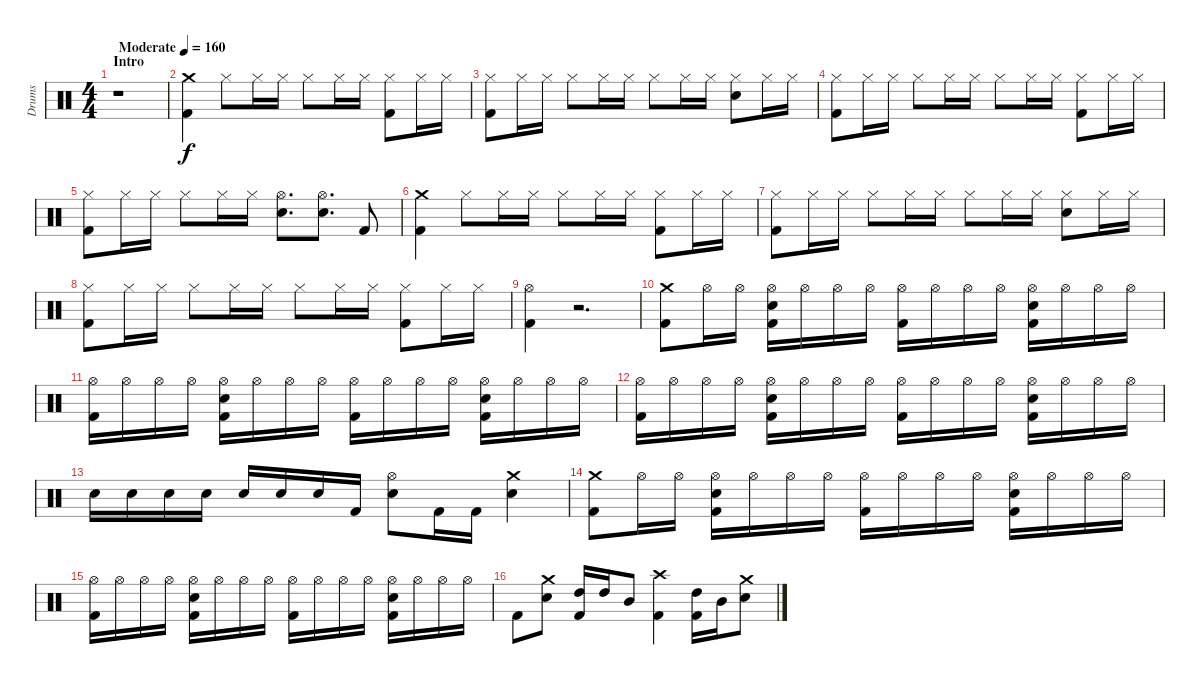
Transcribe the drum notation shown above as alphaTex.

\track ("Drums" "Drums") {instrument percussion}
\staff {score}
\articulation defaults
\ts (4 4)
\section ("" "Intro")
\tempo (160 "Moderate")
\clef neutral
\ks c
r.1{dy f} |
("Crash medium (hit)" "Kick (hit) 2").4 "Hi-Hat (closed)".8 "Hi-Hat (closed)".16 "Hi-Hat (closed)".16 "Hi-Hat (closed)".8 "Hi-Hat (closed)".16 "Hi-Hat (closed)".16 ("Hi-Hat (closed)" "Kick (hit) 2").8 "Hi-Hat (closed)".16 "Hi-Hat (closed)".16 |
("Hi-Hat (closed)" "Kick (hit) 2").8 "Hi-Hat (closed)".16 "Hi-Hat (closed)".16 "Hi-Hat (closed)".8 "Hi-Hat (closed)".16 "Hi-Hat (closed)".16 "Hi-Hat (closed)".8 "Hi-Hat (closed)".16 "Hi-Hat (closed)".16 ("Hi-Hat (closed)" "Snare (hit) 2").8 "Hi-Hat (closed)".16 "Hi-Hat (closed)".16 |
("Hi-Hat (closed)" "Kick (hit) 2").8 "Hi-Hat (closed)".16 "Hi-Hat (closed)".16 "Hi-Hat (closed)".8 "Hi-Hat (closed)".16 "Hi-Hat (closed)".16 "Hi-Hat (closed)".8 "Hi-Hat (closed)".16 "Hi-Hat (closed)".16 ("Hi-Hat (closed)" "Kick (hit) 2").8 "Hi-Hat (closed)".16 "Hi-Hat (closed)".16 |
("Hi-Hat (closed)" "Kick (hit) 2").8 "Hi-Hat (closed)".16 "Hi-Hat (closed)".16 "Hi-Hat (closed)".8 "Hi-Hat (closed)".16 "Hi-Hat (closed)".16 ("Hi-Hat (open)" "Snare (hit) 2").8{d} ("Hi-Hat (open)" "Snare (hit) 2").8{d} "Kick (hit) 2".8 |
("Crash medium (hit)" "Kick (hit) 2").4 "Hi-Hat (closed)".8 "Hi-Hat (closed)".16 "Hi-Hat (closed)".16 "Hi-Hat (closed)".8 "Hi-Hat (closed)".16 "Hi-Hat (closed)".16 ("Hi-Hat (closed)" "Kick (hit) 2").8 "Hi-Hat (closed)".16 "Hi-Hat (closed)".16 |
("Hi-Hat (closed)" "Kick (hit) 2").8 "Hi-Hat (closed)".16 "Hi-Hat (closed)".16 "Hi-Hat (closed)".8 "Hi-Hat (closed)".16 "Hi-Hat (closed)".16 "Hi-Hat (closed)".8 "Hi-Hat (closed)".16 "Hi-Hat (closed)".16 ("Hi-Hat (closed)" "Snare (hit) 2").8 "Hi-Hat (closed)".16 "Hi-Hat (closed)".16 |
("Hi-Hat (closed)" "Kick (hit) 2").8 "Hi-Hat (closed)".16 "Hi-Hat (closed)".16 "Hi-Hat (closed)".8 "Hi-Hat (closed)".16 "Hi-Hat (closed)".16 "Hi-Hat (closed)".8 "Hi-Hat (closed)".16 "Hi-Hat (closed)".16 ("Hi-Hat (closed)" "Kick (hit) 2").8 "Hi-Hat (closed)".16 "Hi-Hat (closed)".16 |
("Hi-Hat (open)" "Kick (hit) 2").4 r.2{d} |
("Crash medium (hit)" "Kick (hit) 2").8 "Hi-Hat (open)".16 "Hi-Hat (open)".16 ("Hi-Hat (open)" "Snare (hit) 2" "Kick (hit) 2").16 "Hi-Hat (open)".16 "Hi-Hat (open)".16 "Hi-Hat (open)".16 ("Hi-Hat (open)" "Kick (hit) 2").16 "Hi-Hat (open)".16 "Hi-Hat (open)".16 "Hi-Hat (open)".16 ("Hi-Hat (open)" "Snare (hit) 2" "Kick (hit) 2").16 "Hi-Hat (open)".16 "Hi-Hat (open)".16 "Hi-Hat (open)".16 |
("Hi-Hat (open)" "Kick (hit) 2").16 "Hi-Hat (open)".16 "Hi-Hat (open)".16 "Hi-Hat (open)".16 ("Hi-Hat (open)" "Snare (hit) 2" "Kick (hit) 2").16 "Hi-Hat (open)".16 "Hi-Hat (open)".16 "Hi-Hat (open)".16 ("Hi-Hat (open)" "Kick (hit) 2").16 "Hi-Hat (open)".16 "Hi-Hat (open)".16 "Hi-Hat (open)".16 ("Hi-Hat (open)" "Snare (hit) 2" "Kick (hit) 2").16 "Hi-Hat (open)".16 "Hi-Hat (open)".16 "Hi-Hat (open)".16 |
("Hi-Hat (open)" "Kick (hit) 2").16 "Hi-Hat (open)".16 "Hi-Hat (open)".16 "Hi-Hat (open)".16 ("Hi-Hat (open)" "Snare (hit) 2" "Kick (hit) 2").16 "Hi-Hat (open)".16 "Hi-Hat (open)".16 "Hi-Hat (open)".16 ("Hi-Hat (open)" "Kick (hit) 2").16 "Hi-Hat (open)".16 "Hi-Hat (open)".16 "Hi-Hat (open)".16 ("Hi-Hat (open)" "Snare (hit) 2" "Kick (hit) 2").16 "Hi-Hat (open)".16 "Hi-Hat (open)".16 "Hi-Hat (open)".16 |
"Snare (hit) 2".16 "Snare (hit) 2".16 "Snare (hit) 2".16 "Snare (hit) 2".16 "Snare (hit) 2".16 "Snare (hit) 2".16 "Snare (hit) 2".16 "Kick (hit) 2".16 ("Hi-Hat (open)" "Snare (hit) 2").8 "Kick (hit) 2".16 "Kick (hit) 2".16 ("Crash medium (hit)" "Snare (hit) 2").4 |
("Crash medium (hit)" "Kick (hit) 2").8 "Hi-Hat (open)".16 "Hi-Hat (open)".16 ("Hi-Hat (open)" "Snare (hit) 2" "Kick (hit) 2").16 "Hi-Hat (open)".16 "Hi-Hat (open)".16 "Hi-Hat (open)".16 ("Hi-Hat (open)" "Kick (hit) 2").16 "Hi-Hat (open)".16 "Hi-Hat (open)".16 "Hi-Hat (open)".16 ("Hi-Hat (open)" "Snare (hit) 2" "Kick (hit) 2").16 "Hi-Hat (open)".16 "Hi-Hat (open)".16 "Hi-Hat (open)".16 |
("Hi-Hat (open)" "Kick (hit) 2").16 "Hi-Hat (open)".16 "Hi-Hat (open)".16 "Hi-Hat (open)".16 ("Hi-Hat (open)" "Snare (hit) 2" "Kick (hit) 2").16 "Hi-Hat (open)".16 "Hi-Hat (open)".16 "Hi-Hat (open)".16 ("Hi-Hat (open)" "Kick (hit) 2").16 "Hi-Hat (open)".16 "Hi-Hat (open)".16 "Hi-Hat (open)".16 ("Hi-Hat (open)" "Snare (hit) 2" "Kick (hit) 2").16 "Hi-Hat (open)".16 "Hi-Hat (open)".16 "Hi-Hat (open)".16 |
"Kick (hit) 2".8 ("Crash medium (hit)" "Snare (hit) 2").8 ("High Tom (hit)" "Kick (hit) 2").16 "High Tom (hit)".16 "Mid Tom (hit)".8 ("Crash high (hit)" "Kick (hit) 2").4 ("High Tom (hit)" "Kick (hit) 2").16 "Mid Tom (hit)".16 ("Crash medium (hit)" "Snare (hit) 2").8
